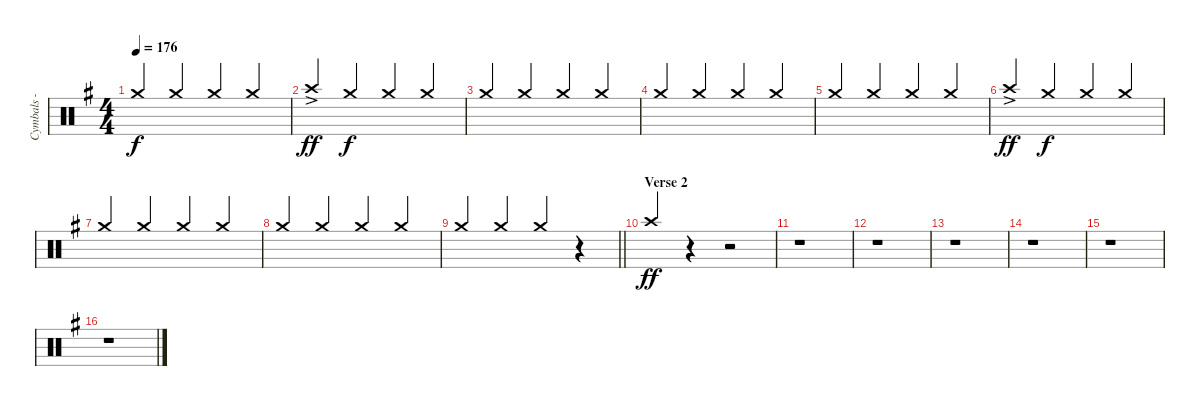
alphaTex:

\track ("Cymbals - crash" "Cymbals - ") {instrument percussion}
\staff {score}
\articulation defaults
\ts (4 4)
\tempo 176
\clef neutral
\ks eminor "Crash medium (hit)".4{dy f beam Up} "Crash medium (hit)".4{beam Up} "Crash medium (hit)".4{beam Up} "Crash medium (hit)".4{beam Up}
|
"Crash high (hit)"{ac}.4{dy ff beam Up} "Crash medium (hit)".4{dy f beam Up} "Crash medium (hit)".4{beam Up} "Crash medium (hit)".4{beam Up} |
"Crash medium (hit)".4{beam Up} "Crash medium (hit)".4{beam Up} "Crash medium (hit)".4{beam Up} "Crash medium (hit)".4{beam Up} |
"Crash medium (hit)".4{beam Up} "Crash medium (hit)".4{beam Up} "Crash medium (hit)".4{beam Up} "Crash medium (hit)".4{beam Up} |
"Crash medium (hit)".4{beam Up} "Crash medium (hit)".4{beam Up} "Crash medium (hit)".4{beam Up} "Crash medium (hit)".4{beam Up} |
"Crash high (hit)"{ac}.4{dy ff beam Up} "Crash medium (hit)".4{dy f beam Up} "Crash medium (hit)".4{beam Up} "Crash medium (hit)".4{beam Up} |
"Crash medium (hit)".4{beam Up} "Crash medium (hit)".4{beam Up} "Crash medium (hit)".4{beam Up} "Crash medium (hit)".4{beam Up} |
"Crash medium (hit)".4{beam Up} "Crash medium (hit)".4{beam Up} "Crash medium (hit)".4{beam Up} "Crash medium (hit)".4{beam Up} |
\barLineRight lightlight "Crash medium (hit)".4{beam Up} "Crash medium (hit)".4{beam Up} "Crash medium (hit)".4{beam Up}
r.4 |
\section ("" "Verse 2")
"Crash high (hit)".4{dy ff balance 8 beam Up} r.4 r.2 |
r.1 |
r.1 |
r.1 |
r.1 |
r.1 |
r.1
